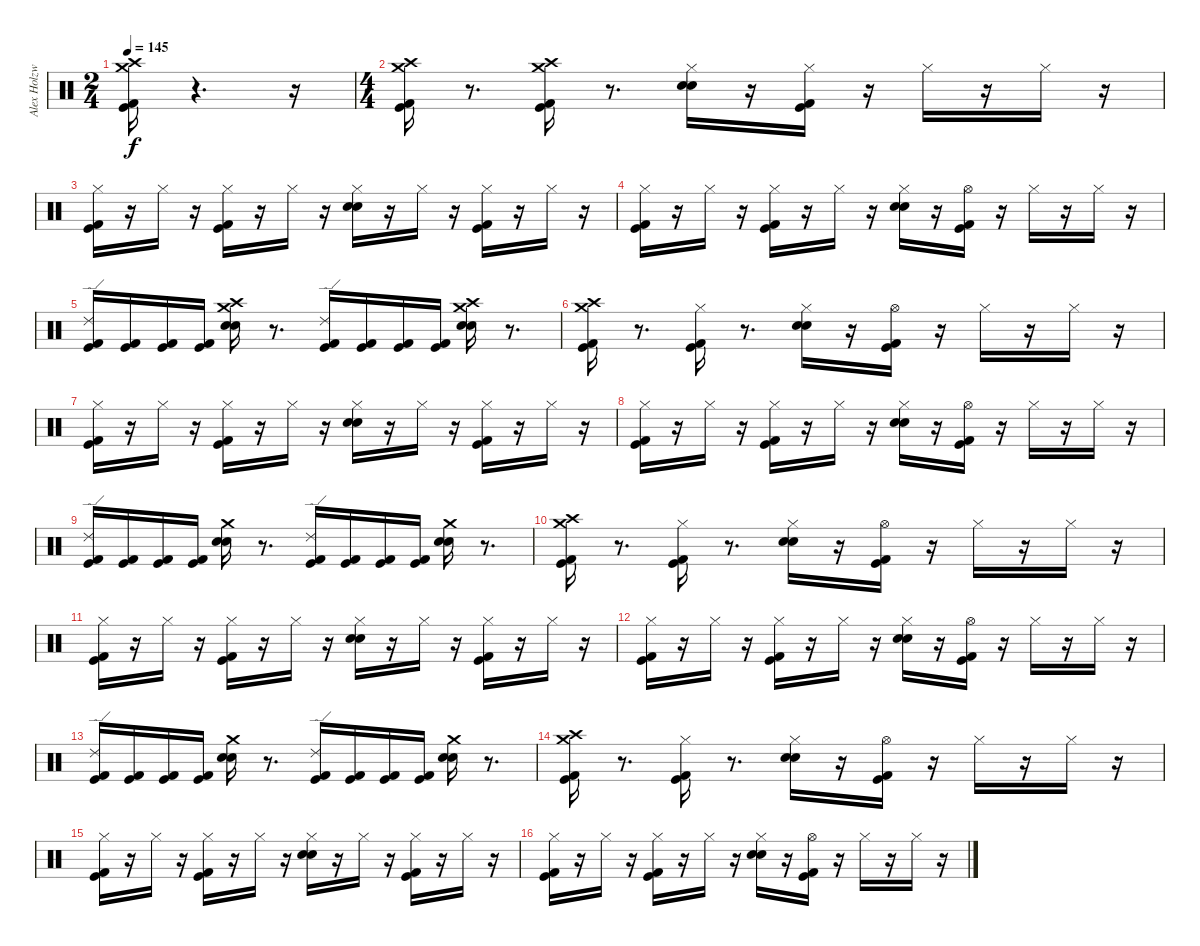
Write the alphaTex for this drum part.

\track ("Alex Holzwarth" "Alex Holzw") {instrument percussion}
\staff {score}
\articulation defaults
\ts (2 4)
\tempo 145
\clef neutral
\ks c
("Crash medium (hit)" "Crash high (hit)" "Kick (hit) 2" "Kick (hit)").16{dy f} r.4{d} r.16 |
\ts (4 4)
("Crash medium (hit)" "Crash high (hit)" "Kick (hit) 2" "Kick (hit)").16 r.8{d} ("Crash medium (hit)" "Crash high (hit)" "Kick (hit) 2" "Kick (hit)").16 r.8{d} ("Hi-Hat (closed)" "Electric Snare (hit)" "Snare (hit) 2").16 r.16 ("Hi-Hat (closed)" "Kick (hit) 2" "Kick (hit)").16 r.16 "Hi-Hat (closed)".16 r.16 "Hi-Hat (closed)".16 r.16 |
("Hi-Hat (closed)" "Kick (hit) 2" "Kick (hit)").16 r.16 "Hi-Hat (closed)".16 r.16 ("Hi-Hat (closed)" "Kick (hit) 2" "Kick (hit)").16 r.16 "Hi-Hat (closed)".16 r.16 ("Hi-Hat (closed)" "Electric Snare (hit)" "Snare (hit) 2").16 r.16 "Hi-Hat (closed)".16 r.16 ("Hi-Hat (closed)" "Kick (hit) 2" "Kick (hit)").16 r.16 "Hi-Hat (closed)".16 r.16 |
("Hi-Hat (closed)" "Kick (hit) 2" "Kick (hit)").16 r.16 "Hi-Hat (closed)".16 r.16 ("Hi-Hat (closed)" "Kick (hit) 2" "Kick (hit)").16 r.16 "Hi-Hat (closed)".16 r.16 ("Hi-Hat (closed)" "Electric Snare (hit)" "Snare (hit) 2").16 r.16 ("Hi-Hat (open)" "Kick (hit) 2" "Kick (hit)").16 r.16 "Hi-Hat (closed)".16 r.16 "Hi-Hat (closed)".16 r.16 |
("Ride (edge) 2" "Kick (hit) 2" "Kick (hit)").16 ("Kick (hit) 2" "Kick (hit)").16 ("Kick (hit) 2" "Kick (hit)").16 ("Kick (hit) 2" "Kick (hit)").16 ("Electric Snare (hit)" "Snare (hit) 2" "Crash high (hit)" "Crash medium (hit)").16 r.8{d} ("Ride (edge) 2" "Kick (hit) 2" "Kick (hit)").16 ("Kick (hit) 2" "Kick (hit)").16 ("Kick (hit) 2" "Kick (hit)").16 ("Kick (hit) 2" "Kick (hit)").16 ("Electric Snare (hit)" "Snare (hit) 2" "Crash high (hit)" "Crash medium (hit)").16 r.8{d} |
("Crash high (hit)" "Crash medium (hit)" "Kick (hit) 2" "Kick (hit)").16 r.8{d} ("Hi-Hat (closed)" "Kick (hit) 2" "Kick (hit)").16 r.8{d} ("Hi-Hat (closed)" "Electric Snare (hit)" "Snare (hit) 2").16 r.16 ("Hi-Hat (open)" "Kick (hit) 2" "Kick (hit)").16 r.16 "Hi-Hat (closed)".16 r.16 "Hi-Hat (closed)".16 r.16 |
("Hi-Hat (closed)" "Kick (hit) 2" "Kick (hit)").16 r.16 "Hi-Hat (closed)".16 r.16 ("Hi-Hat (closed)" "Kick (hit) 2" "Kick (hit)").16 r.16 "Hi-Hat (closed)".16 r.16 ("Hi-Hat (closed)" "Electric Snare (hit)" "Snare (hit) 2").16 r.16 "Hi-Hat (closed)".16 r.16 ("Hi-Hat (closed)" "Kick (hit) 2" "Kick (hit)").16 r.16 "Hi-Hat (closed)".16 r.16 |
("Hi-Hat (closed)" "Kick (hit) 2" "Kick (hit)").16 r.16 "Hi-Hat (closed)".16 r.16 ("Hi-Hat (closed)" "Kick (hit) 2" "Kick (hit)").16 r.16 "Hi-Hat (closed)".16 r.16 ("Hi-Hat (closed)" "Electric Snare (hit)" "Snare (hit) 2").16 r.16 ("Hi-Hat (open)" "Kick (hit) 2" "Kick (hit)").16 r.16 "Hi-Hat (closed)".16 r.16 "Hi-Hat (closed)".16 r.16 |
("Ride (edge) 2" "Kick (hit) 2" "Kick (hit)").16 ("Kick (hit) 2" "Kick (hit)").16 ("Kick (hit) 2" "Kick (hit)").16 ("Kick (hit) 2" "Kick (hit)").16 ("Crash medium (hit)" "Electric Snare (hit)" "Snare (hit) 2").16 r.8{d} ("Ride (edge) 2" "Kick (hit) 2" "Kick (hit)").16 ("Kick (hit) 2" "Kick (hit)").16 ("Kick (hit) 2" "Kick (hit)").16 ("Kick (hit) 2" "Kick (hit)").16 ("Crash medium (hit)" "Electric Snare (hit)" "Snare (hit) 2").16 r.8{d} |
("Crash high (hit)" "Crash medium (hit)" "Kick (hit) 2" "Kick (hit)").16 r.8{d} ("Hi-Hat (closed)" "Kick (hit) 2" "Kick (hit)").16 r.8{d} ("Hi-Hat (closed)" "Electric Snare (hit)" "Snare (hit) 2").16 r.16 ("Hi-Hat (open)" "Kick (hit) 2" "Kick (hit)").16 r.16 "Hi-Hat (closed)".16 r.16 "Hi-Hat (closed)".16 r.16 |
("Hi-Hat (closed)" "Kick (hit) 2" "Kick (hit)").16 r.16 "Hi-Hat (closed)".16 r.16 ("Hi-Hat (closed)" "Kick (hit) 2" "Kick (hit)").16 r.16 "Hi-Hat (closed)".16 r.16 ("Hi-Hat (closed)" "Electric Snare (hit)" "Snare (hit) 2").16 r.16 "Hi-Hat (closed)".16 r.16 ("Hi-Hat (closed)" "Kick (hit) 2" "Kick (hit)").16 r.16 "Hi-Hat (closed)".16 r.16 |
("Hi-Hat (closed)" "Kick (hit) 2" "Kick (hit)").16 r.16 "Hi-Hat (closed)".16 r.16 ("Hi-Hat (closed)" "Kick (hit) 2" "Kick (hit)").16 r.16 "Hi-Hat (closed)".16 r.16 ("Hi-Hat (closed)" "Electric Snare (hit)" "Snare (hit) 2").16 r.16 ("Hi-Hat (open)" "Kick (hit) 2" "Kick (hit)").16 r.16 "Hi-Hat (closed)".16 r.16 "Hi-Hat (closed)".16 r.16 |
("Ride (edge) 2" "Kick (hit) 2" "Kick (hit)").16 ("Kick (hit) 2" "Kick (hit)").16 ("Kick (hit) 2" "Kick (hit)").16 ("Kick (hit) 2" "Kick (hit)").16 ("Crash medium (hit)" "Electric Snare (hit)" "Snare (hit) 2").16 r.8{d} ("Ride (edge) 2" "Kick (hit) 2" "Kick (hit)").16 ("Kick (hit) 2" "Kick (hit)").16 ("Kick (hit) 2" "Kick (hit)").16 ("Kick (hit) 2" "Kick (hit)").16 ("Crash medium (hit)" "Electric Snare (hit)" "Snare (hit) 2").16 r.8{d} |
("Crash high (hit)" "Crash medium (hit)" "Kick (hit) 2" "Kick (hit)").16 r.8{d} ("Hi-Hat (closed)" "Kick (hit) 2" "Kick (hit)").16 r.8{d} ("Hi-Hat (closed)" "Electric Snare (hit)" "Snare (hit) 2").16 r.16 ("Hi-Hat (open)" "Kick (hit) 2" "Kick (hit)").16 r.16 "Hi-Hat (closed)".16 r.16 "Hi-Hat (closed)".16 r.16 |
("Hi-Hat (closed)" "Kick (hit) 2" "Kick (hit)").16 r.16 "Hi-Hat (closed)".16 r.16 ("Hi-Hat (closed)" "Kick (hit) 2" "Kick (hit)").16 r.16 "Hi-Hat (closed)".16 r.16 ("Hi-Hat (closed)" "Electric Snare (hit)" "Snare (hit) 2").16 r.16 "Hi-Hat (closed)".16 r.16 ("Hi-Hat (closed)" "Kick (hit) 2" "Kick (hit)").16 r.16 "Hi-Hat (closed)".16 r.16 |
("Hi-Hat (closed)" "Kick (hit) 2" "Kick (hit)").16 r.16 "Hi-Hat (closed)".16 r.16 ("Hi-Hat (closed)" "Kick (hit) 2" "Kick (hit)").16 r.16 "Hi-Hat (closed)".16 r.16 ("Hi-Hat (closed)" "Electric Snare (hit)" "Snare (hit) 2").16 r.16 ("Hi-Hat (open)" "Kick (hit) 2" "Kick (hit)").16 r.16 "Hi-Hat (closed)".16 r.16 "Hi-Hat (closed)".16 r.16
